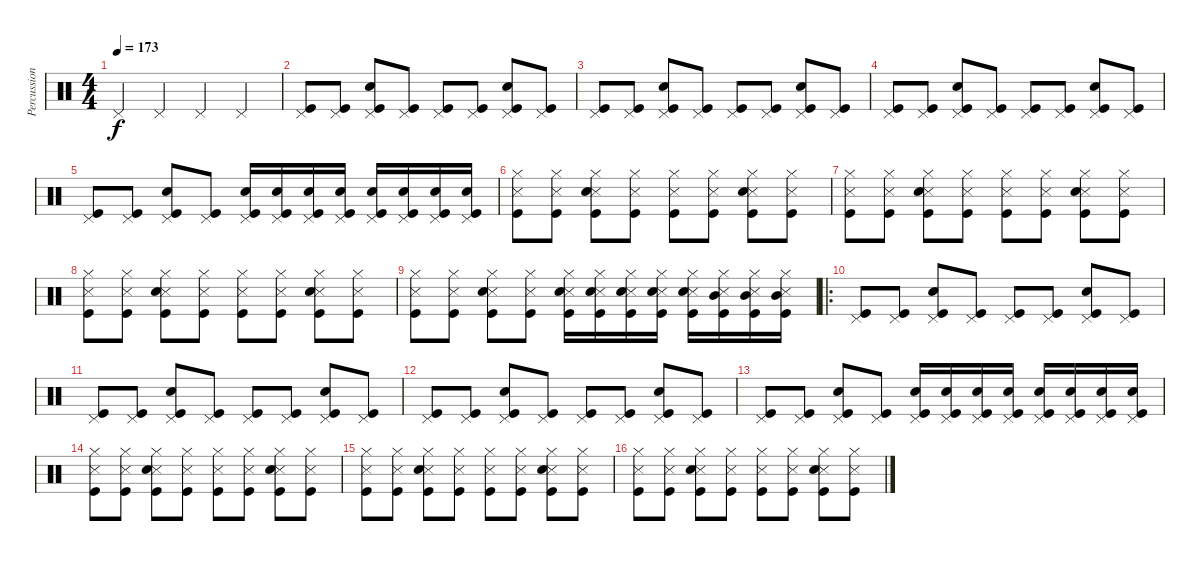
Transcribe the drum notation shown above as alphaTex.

\track ("Percussion" "Percussion") {instrument percussion}
\staff {score}
\articulation defaults
\ts (4 4)
\tempo 173
\clef neutral
\ks c "Pedal Hi-Hat (hit)".4{dy f} "Pedal Hi-Hat (hit)".4 "Pedal Hi-Hat (hit)".4 "Pedal Hi-Hat (hit)".4
|
("Pedal Hi-Hat (hit)" "Kick (hit)").8 ("Pedal Hi-Hat (hit)" "Kick (hit)").8 ("Pedal Hi-Hat (hit)" "Snare (hit) 2" "Kick (hit)").8 ("Pedal Hi-Hat (hit)" "Kick (hit)").8 ("Pedal Hi-Hat (hit)" "Kick (hit)").8 ("Pedal Hi-Hat (hit)" "Kick (hit)").8 ("Pedal Hi-Hat (hit)" "Snare (hit) 2" "Kick (hit)").8 ("Pedal Hi-Hat (hit)" "Kick (hit)").8 |
("Pedal Hi-Hat (hit)" "Kick (hit)").8 ("Pedal Hi-Hat (hit)" "Kick (hit)").8 ("Pedal Hi-Hat (hit)" "Snare (hit) 2" "Kick (hit)").8 ("Pedal Hi-Hat (hit)" "Kick (hit)").8 ("Pedal Hi-Hat (hit)" "Kick (hit)").8 ("Pedal Hi-Hat (hit)" "Kick (hit)").8 ("Pedal Hi-Hat (hit)" "Snare (hit) 2" "Kick (hit)").8 ("Pedal Hi-Hat (hit)" "Kick (hit)").8 |
("Pedal Hi-Hat (hit)" "Kick (hit)").8 ("Pedal Hi-Hat (hit)" "Kick (hit)").8 ("Pedal Hi-Hat (hit)" "Snare (hit) 2" "Kick (hit)").8 ("Pedal Hi-Hat (hit)" "Kick (hit)").8 ("Pedal Hi-Hat (hit)" "Kick (hit)").8 ("Pedal Hi-Hat (hit)" "Kick (hit)").8 ("Pedal Hi-Hat (hit)" "Snare (hit) 2" "Kick (hit)").8 ("Pedal Hi-Hat (hit)" "Kick (hit)").8 |
("Pedal Hi-Hat (hit)" "Kick (hit)").8 ("Pedal Hi-Hat (hit)" "Kick (hit)").8 ("Pedal Hi-Hat (hit)" "Snare (hit) 2" "Kick (hit)").8 ("Pedal Hi-Hat (hit)" "Kick (hit)").8 ("Pedal Hi-Hat (hit)" "Snare (hit) 2" "Kick (hit)").16 ("Pedal Hi-Hat (hit)" "Snare (hit) 2" "Kick (hit)").16 ("Pedal Hi-Hat (hit)" "Snare (hit) 2" "Kick (hit)").16 ("Pedal Hi-Hat (hit)" "Snare (hit) 2" "Kick (hit)").16 ("Pedal Hi-Hat (hit)" "Snare (hit) 2" "Kick (hit)").16 ("Pedal Hi-Hat (hit)" "Snare (hit) 2" "Kick (hit)").16 ("Pedal Hi-Hat (hit)" "Snare (hit) 2" "Kick (hit)").16 ("Pedal Hi-Hat (hit)" "Snare (hit) 2" "Kick (hit)").16 |
("Snare (side stick) 3" "Hi-Hat (closed)" "Kick (hit)").8 ("Snare (side stick) 3" "Hi-Hat (closed)" "Kick (hit)").8 ("Snare (side stick) 3" "Hi-Hat (closed)" "Snare (hit) 2" "Kick (hit)").8 ("Snare (side stick) 3" "Hi-Hat (closed)" "Kick (hit)").8 ("Snare (side stick) 3" "Hi-Hat (closed)" "Kick (hit)").8 ("Snare (side stick) 3" "Hi-Hat (closed)" "Kick (hit)").8 ("Snare (side stick) 3" "Hi-Hat (closed)" "Snare (hit) 2" "Kick (hit)").8 ("Snare (side stick) 3" "Hi-Hat (closed)" "Kick (hit)").8 |
("Snare (side stick) 3" "Hi-Hat (closed)" "Kick (hit)").8 ("Snare (side stick) 3" "Hi-Hat (closed)" "Kick (hit)").8 ("Snare (side stick) 3" "Hi-Hat (closed)" "Snare (hit) 2" "Kick (hit)").8 ("Snare (side stick) 3" "Hi-Hat (closed)" "Kick (hit)").8 ("Snare (side stick) 3" "Hi-Hat (closed)" "Kick (hit)").8 ("Snare (side stick) 3" "Hi-Hat (closed)" "Kick (hit)").8 ("Snare (side stick) 3" "Hi-Hat (closed)" "Snare (hit) 2" "Kick (hit)").8 ("Snare (side stick) 3" "Hi-Hat (closed)" "Kick (hit)").8 |
("Snare (side stick) 3" "Hi-Hat (closed)" "Kick (hit)").8 ("Snare (side stick) 3" "Hi-Hat (closed)" "Kick (hit)").8 ("Snare (side stick) 3" "Hi-Hat (closed)" "Snare (hit) 2" "Kick (hit)").8 ("Snare (side stick) 3" "Hi-Hat (closed)" "Kick (hit)").8 ("Snare (side stick) 3" "Hi-Hat (closed)" "Kick (hit)").8 ("Snare (side stick) 3" "Hi-Hat (closed)" "Kick (hit)").8 ("Snare (side stick) 3" "Hi-Hat (closed)" "Snare (hit) 2" "Kick (hit)").8 ("Snare (side stick) 3" "Hi-Hat (closed)" "Kick (hit)").8 |
("Snare (side stick) 3" "Hi-Hat (closed)" "Kick (hit)").8 ("Snare (side stick) 3" "Hi-Hat (closed)" "Kick (hit)").8 ("Snare (side stick) 3" "Hi-Hat (closed)" "Snare (hit) 2" "Kick (hit)").8 ("Snare (side stick) 3" "Hi-Hat (closed)" "Kick (hit)").8 ("Snare (side stick) 3" "Hi-Hat (closed)" "Snare (hit) 2" "Kick (hit)").16 ("Snare (side stick) 3" "Hi-Hat (closed)" "Snare (hit) 2" "Kick (hit)").16 ("Snare (side stick) 3" "Hi-Hat (closed)" "Snare (hit) 2" "Kick (hit)").16 ("Snare (side stick) 3" "Hi-Hat (closed)" "Snare (hit) 2" "Kick (hit)").16 ("Snare (side stick) 3" "Hi-Hat (closed)" "Snare (hit)" "Kick (hit)").16 ("Snare (side stick) 3" "Hi-Hat (closed)" "Mid Tom (hit)" "Kick (hit)").16 ("Snare (side stick) 3" "Hi-Hat (closed)" "Mid Tom (hit)" "Kick (hit)").16 ("Snare (side stick) 3" "Hi-Hat (closed)" "Mid Tom (hit)" "Kick (hit)").16 |
\ro
("Pedal Hi-Hat (hit)" "Kick (hit)").8 ("Pedal Hi-Hat (hit)" "Kick (hit)").8 ("Pedal Hi-Hat (hit)" "Snare (hit) 2" "Kick (hit)").8 ("Pedal Hi-Hat (hit)" "Kick (hit)").8 ("Pedal Hi-Hat (hit)" "Kick (hit)").8 ("Pedal Hi-Hat (hit)" "Kick (hit)").8 ("Pedal Hi-Hat (hit)" "Snare (hit) 2" "Kick (hit)").8 ("Pedal Hi-Hat (hit)" "Kick (hit)").8 |
("Pedal Hi-Hat (hit)" "Kick (hit)").8 ("Pedal Hi-Hat (hit)" "Kick (hit)").8 ("Pedal Hi-Hat (hit)" "Snare (hit) 2" "Kick (hit)").8 ("Pedal Hi-Hat (hit)" "Kick (hit)").8 ("Pedal Hi-Hat (hit)" "Kick (hit)").8 ("Pedal Hi-Hat (hit)" "Kick (hit)").8 ("Pedal Hi-Hat (hit)" "Snare (hit) 2" "Kick (hit)").8 ("Pedal Hi-Hat (hit)" "Kick (hit)").8 |
("Pedal Hi-Hat (hit)" "Kick (hit)").8 ("Pedal Hi-Hat (hit)" "Kick (hit)").8 ("Pedal Hi-Hat (hit)" "Snare (hit) 2" "Kick (hit)").8 ("Pedal Hi-Hat (hit)" "Kick (hit)").8 ("Pedal Hi-Hat (hit)" "Kick (hit)").8 ("Pedal Hi-Hat (hit)" "Kick (hit)").8 ("Pedal Hi-Hat (hit)" "Snare (hit) 2" "Kick (hit)").8 ("Pedal Hi-Hat (hit)" "Kick (hit)").8 |
("Pedal Hi-Hat (hit)" "Kick (hit)").8 ("Pedal Hi-Hat (hit)" "Kick (hit)").8 ("Pedal Hi-Hat (hit)" "Snare (hit) 2" "Kick (hit)").8 ("Pedal Hi-Hat (hit)" "Kick (hit)").8 ("Pedal Hi-Hat (hit)" "Snare (hit) 2" "Kick (hit)").16 ("Pedal Hi-Hat (hit)" "Snare (hit) 2" "Kick (hit)").16 ("Pedal Hi-Hat (hit)" "Snare (hit) 2" "Kick (hit)").16 ("Pedal Hi-Hat (hit)" "Snare (hit) 2" "Kick (hit)").16 ("Pedal Hi-Hat (hit)" "Snare (hit) 2" "Kick (hit)").16 ("Pedal Hi-Hat (hit)" "Snare (hit) 2" "Kick (hit)").16 ("Pedal Hi-Hat (hit)" "Snare (hit) 2" "Kick (hit)").16 ("Pedal Hi-Hat (hit)" "Snare (hit) 2" "Kick (hit)").16 |
("Snare (side stick) 3" "Hi-Hat (closed)" "Kick (hit)").8 ("Snare (side stick) 3" "Hi-Hat (closed)" "Kick (hit)").8 ("Snare (side stick) 3" "Hi-Hat (closed)" "Snare (hit) 2" "Kick (hit)").8 ("Snare (side stick) 3" "Hi-Hat (closed)" "Kick (hit)").8 ("Snare (side stick) 3" "Hi-Hat (closed)" "Kick (hit)").8 ("Snare (side stick) 3" "Hi-Hat (closed)" "Kick (hit)").8 ("Snare (side stick) 3" "Hi-Hat (closed)" "Snare (hit) 2" "Kick (hit)").8 ("Snare (side stick) 3" "Hi-Hat (closed)" "Kick (hit)").8 |
("Snare (side stick) 3" "Hi-Hat (closed)" "Kick (hit)").8 ("Snare (side stick) 3" "Hi-Hat (closed)" "Kick (hit)").8 ("Snare (side stick) 3" "Hi-Hat (closed)" "Snare (hit) 2" "Kick (hit)").8 ("Snare (side stick) 3" "Hi-Hat (closed)" "Kick (hit)").8 ("Snare (side stick) 3" "Hi-Hat (closed)" "Kick (hit)").8 ("Snare (side stick) 3" "Hi-Hat (closed)" "Kick (hit)").8 ("Snare (side stick) 3" "Hi-Hat (closed)" "Snare (hit) 2" "Kick (hit)").8 ("Snare (side stick) 3" "Hi-Hat (closed)" "Kick (hit)").8 |
("Snare (side stick) 3" "Hi-Hat (closed)" "Kick (hit)").8 ("Snare (side stick) 3" "Hi-Hat (closed)" "Kick (hit)").8 ("Snare (side stick) 3" "Hi-Hat (closed)" "Snare (hit) 2" "Kick (hit)").8 ("Snare (side stick) 3" "Hi-Hat (closed)" "Kick (hit)").8 ("Snare (side stick) 3" "Hi-Hat (closed)" "Kick (hit)").8 ("Snare (side stick) 3" "Hi-Hat (closed)" "Kick (hit)").8 ("Snare (side stick) 3" "Hi-Hat (closed)" "Snare (hit) 2" "Kick (hit)").8 ("Snare (side stick) 3" "Hi-Hat (closed)" "Kick (hit)").8
